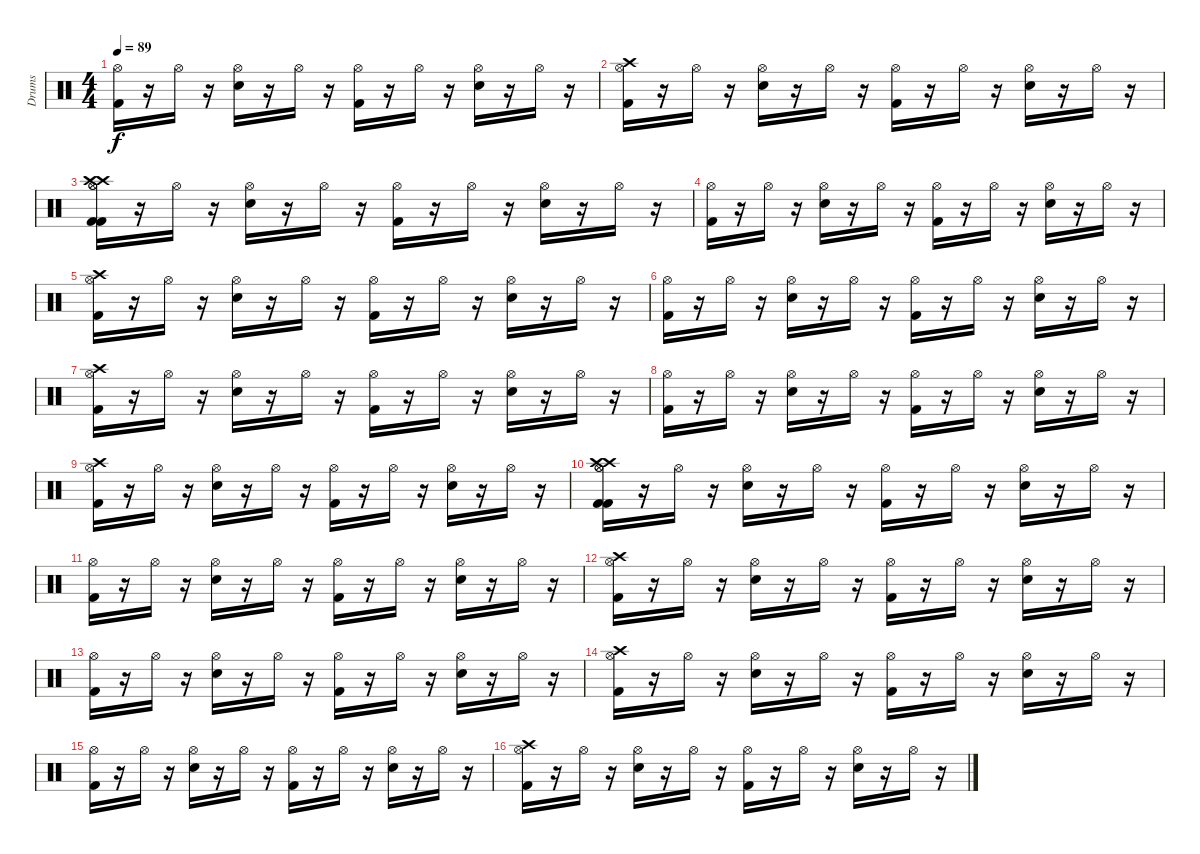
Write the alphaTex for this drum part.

\track ("Drums " "Drums ") {instrument percussion}
\staff {score}
\articulation defaults
\ts (4 4)
\tempo 89
\clef neutral
\ks c
("Kick (hit) 2" "Hi-Hat (open)").16{dy f} r.16 "Hi-Hat (open)".16 r.16 ("Snare (hit) 2" "Hi-Hat (open)").16 r.16 "Hi-Hat (open)".16 r.16 ("Kick (hit) 2" "Hi-Hat (open)").16 r.16 "Hi-Hat (open)".16 r.16 ("Snare (hit) 2" "Hi-Hat (open)").16 r.16 "Hi-Hat (open)".16 r.16 |
("Kick (hit) 2" "Crash high (hit)" "Hi-Hat (open)").16 r.16 "Hi-Hat (open)".16 r.16 ("Snare (hit) 2" "Hi-Hat (open)").16 r.16 "Hi-Hat (open)".16 r.16 ("Kick (hit) 2" "Hi-Hat (open)").16 r.16 "Hi-Hat (open)".16 r.16 ("Snare (hit) 2" "Hi-Hat (open)").16 r.16 "Hi-Hat (open)".16 r.16 |
("Kick (hit) 2" "Hi-Hat (open)" "Crash high (hit)" "Kick (hit) 2" "Crash high (hit)" "Hi-Hat (open)").16 r.16 "Hi-Hat (open)".16 r.16 ("Snare (hit) 2" "Hi-Hat (open)").16 r.16 "Hi-Hat (open)".16 r.16 ("Kick (hit) 2" "Hi-Hat (open)").16 r.16 "Hi-Hat (open)".16 r.16 ("Snare (hit) 2" "Hi-Hat (open)").16 r.16 "Hi-Hat (open)".16 r.16 |
("Kick (hit) 2" "Hi-Hat (open)").16 r.16 "Hi-Hat (open)".16 r.16 ("Snare (hit) 2" "Hi-Hat (open)").16 r.16 "Hi-Hat (open)".16 r.16 ("Kick (hit) 2" "Hi-Hat (open)").16 r.16 "Hi-Hat (open)".16 r.16 ("Snare (hit) 2" "Hi-Hat (open)").16 r.16 "Hi-Hat (open)".16 r.16 |
("Kick (hit) 2" "Crash high (hit)" "Hi-Hat (open)").16 r.16 "Hi-Hat (open)".16 r.16 ("Snare (hit) 2" "Hi-Hat (open)").16 r.16 "Hi-Hat (open)".16 r.16 ("Kick (hit) 2" "Hi-Hat (open)").16 r.16 "Hi-Hat (open)".16 r.16 ("Snare (hit) 2" "Hi-Hat (open)").16 r.16 "Hi-Hat (open)".16 r.16 |
("Kick (hit) 2" "Hi-Hat (open)").16 r.16 "Hi-Hat (open)".16 r.16 ("Snare (hit) 2" "Hi-Hat (open)").16 r.16 "Hi-Hat (open)".16 r.16 ("Kick (hit) 2" "Hi-Hat (open)").16 r.16 "Hi-Hat (open)".16 r.16 ("Snare (hit) 2" "Hi-Hat (open)").16 r.16 "Hi-Hat (open)".16 r.16 |
("Kick (hit) 2" "Crash high (hit)" "Hi-Hat (open)").16 r.16 "Hi-Hat (open)".16 r.16 ("Snare (hit) 2" "Hi-Hat (open)").16 r.16 "Hi-Hat (open)".16 r.16 ("Kick (hit) 2" "Hi-Hat (open)").16 r.16 "Hi-Hat (open)".16 r.16 ("Snare (hit) 2" "Hi-Hat (open)").16 r.16 "Hi-Hat (open)".16 r.16 |
("Kick (hit) 2" "Hi-Hat (open)").16 r.16 "Hi-Hat (open)".16 r.16 ("Snare (hit) 2" "Hi-Hat (open)").16 r.16 "Hi-Hat (open)".16 r.16 ("Kick (hit) 2" "Hi-Hat (open)").16 r.16 "Hi-Hat (open)".16 r.16 ("Snare (hit) 2" "Hi-Hat (open)").16 r.16 "Hi-Hat (open)".16 r.16 |
("Kick (hit) 2" "Crash high (hit)" "Hi-Hat (open)").16 r.16 "Hi-Hat (open)".16 r.16 ("Snare (hit) 2" "Hi-Hat (open)").16 r.16 "Hi-Hat (open)".16 r.16 ("Kick (hit) 2" "Hi-Hat (open)").16 r.16 "Hi-Hat (open)".16 r.16 ("Snare (hit) 2" "Hi-Hat (open)").16 r.16 "Hi-Hat (open)".16 r.16 |
("Kick (hit) 2" "Hi-Hat (open)" "Crash high (hit)" "Kick (hit) 2" "Crash high (hit)" "Hi-Hat (open)").16 r.16 "Hi-Hat (open)".16 r.16 ("Snare (hit) 2" "Hi-Hat (open)").16 r.16 "Hi-Hat (open)".16 r.16 ("Kick (hit) 2" "Hi-Hat (open)").16 r.16 "Hi-Hat (open)".16 r.16 ("Snare (hit) 2" "Hi-Hat (open)").16 r.16 "Hi-Hat (open)".16 r.16 |
("Kick (hit) 2" "Hi-Hat (open)").16 r.16 "Hi-Hat (open)".16 r.16 ("Snare (hit) 2" "Hi-Hat (open)").16 r.16 "Hi-Hat (open)".16 r.16 ("Kick (hit) 2" "Hi-Hat (open)").16 r.16 "Hi-Hat (open)".16 r.16 ("Snare (hit) 2" "Hi-Hat (open)").16 r.16 "Hi-Hat (open)".16 r.16 |
("Kick (hit) 2" "Crash high (hit)" "Hi-Hat (open)").16 r.16 "Hi-Hat (open)".16 r.16 ("Snare (hit) 2" "Hi-Hat (open)").16 r.16 "Hi-Hat (open)".16 r.16 ("Kick (hit) 2" "Hi-Hat (open)").16 r.16 "Hi-Hat (open)".16 r.16 ("Snare (hit) 2" "Hi-Hat (open)").16 r.16 "Hi-Hat (open)".16 r.16 |
("Kick (hit) 2" "Hi-Hat (open)").16 r.16 "Hi-Hat (open)".16 r.16 ("Snare (hit) 2" "Hi-Hat (open)").16 r.16 "Hi-Hat (open)".16 r.16 ("Kick (hit) 2" "Hi-Hat (open)").16 r.16 "Hi-Hat (open)".16 r.16 ("Snare (hit) 2" "Hi-Hat (open)").16 r.16 "Hi-Hat (open)".16 r.16 |
("Kick (hit) 2" "Crash high (hit)" "Hi-Hat (open)").16 r.16 "Hi-Hat (open)".16 r.16 ("Snare (hit) 2" "Hi-Hat (open)").16 r.16 "Hi-Hat (open)".16 r.16 ("Kick (hit) 2" "Hi-Hat (open)").16 r.16 "Hi-Hat (open)".16 r.16 ("Snare (hit) 2" "Hi-Hat (open)").16 r.16 "Hi-Hat (open)".16 r.16 |
("Kick (hit) 2" "Hi-Hat (open)").16 r.16 "Hi-Hat (open)".16 r.16 ("Snare (hit) 2" "Hi-Hat (open)").16 r.16 "Hi-Hat (open)".16 r.16 ("Kick (hit) 2" "Hi-Hat (open)").16 r.16 "Hi-Hat (open)".16 r.16 ("Snare (hit) 2" "Hi-Hat (open)").16 r.16 "Hi-Hat (open)".16 r.16 |
("Kick (hit) 2" "Crash high (hit)" "Hi-Hat (open)").16 r.16 "Hi-Hat (open)".16 r.16 ("Snare (hit) 2" "Hi-Hat (open)").16 r.16 "Hi-Hat (open)".16 r.16 ("Kick (hit) 2" "Hi-Hat (open)").16 r.16 "Hi-Hat (open)".16 r.16 ("Snare (hit) 2" "Hi-Hat (open)").16 r.16 "Hi-Hat (open)".16 r.16
